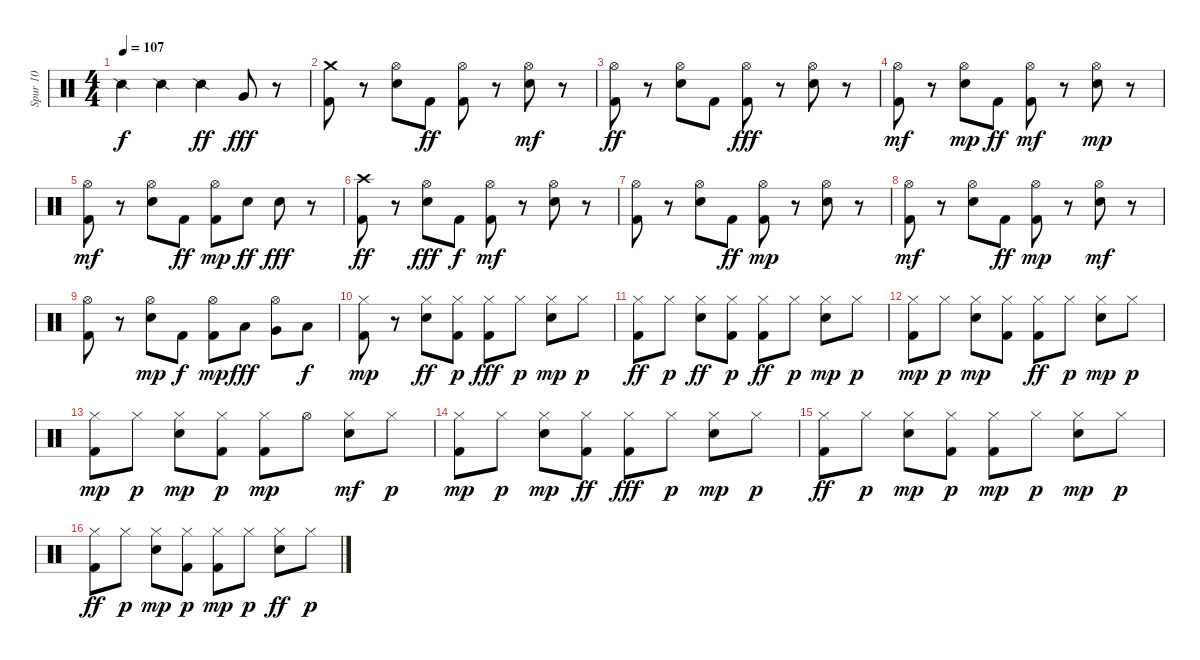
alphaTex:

\track ("Spur 10" "Spur 10") {instrument percussion}
\staff {score}
\articulation defaults
\ts (4 4)
\tempo 107
\clef neutral
\ks c "Snare (side stick) 2".4{dy f} "Snare (side stick) 2".4 "Snare (side stick) 2".4{dy ff} "Very Low Tom (hit)".8{dy fff}
r.8 |
("Crash medium (hit)" "Kick (hit) 2").8 r.8 ("Hi-Hat (open)" "Electric Snare (hit)").8 "Kick (hit) 2".8{dy ff} ("Kick (hit) 2" "Hi-Hat (open)").8 r.8 ("Electric Snare (hit)" "Hi-Hat (open)").8{dy mf} r.8 |
("Hi-Hat (open)" "Kick (hit) 2").8{dy ff} r.8 ("Hi-Hat (open)" "Electric Snare (hit)").8 "Kick (hit) 2".8 ("Hi-Hat (open)" "Kick (hit) 2").8{dy fff} r.8 ("Electric Snare (hit)" "Hi-Hat (open)").8 r.8 |
("Kick (hit) 2" "Hi-Hat (open)").8{dy mf} r.8 ("Electric Snare (hit)" "Hi-Hat (open)").8{dy mp} "Kick (hit) 2".8{dy ff} ("Kick (hit) 2" "Hi-Hat (open)").8{dy mf} r.8 ("Electric Snare (hit)" "Hi-Hat (open)").8{dy mp} r.8 |
("Kick (hit) 2" "Hi-Hat (open)").8{dy mf} r.8 ("Electric Snare (hit)" "Hi-Hat (open)").8 "Kick (hit) 2".8{dy ff} ("Kick (hit) 2" "Hi-Hat (open)").8{dy mp} "Electric Snare (hit)".8{dy ff} "Electric Snare (hit)".8{dy fff} r.8 |
("Crash high (hit)" "Kick (hit) 2").8{dy ff} r.8 ("Hi-Hat (open)" "Electric Snare (hit)").8{dy fff} "Kick (hit) 2".8{dy f} ("Kick (hit) 2" "Hi-Hat (open)").8{dy mf} r.8 ("Electric Snare (hit)" "Hi-Hat (open)").8 r.8 |
("Kick (hit) 2" "Hi-Hat (open)").8 r.8 ("Electric Snare (hit)" "Hi-Hat (open)").8 "Kick (hit) 2".8{dy ff} ("Kick (hit) 2" "Hi-Hat (open)").8{dy mp} r.8 ("Electric Snare (hit)" "Hi-Hat (open)").8 r.8 |
("Kick (hit) 2" "Hi-Hat (open)").8{dy mf} r.8 ("Electric Snare (hit)" "Hi-Hat (open)").8 "Kick (hit) 2".8{dy ff} ("Kick (hit) 2" "Hi-Hat (open)").8{dy mp} r.8 ("Electric Snare (hit)" "Hi-Hat (open)").8{dy mf} r.8 |
("Kick (hit) 2" "Hi-Hat (open)").8 r.8 ("Electric Snare (hit)" "Hi-Hat (open)").8{dy mp} "Kick (hit) 2".8{dy f} ("Kick (hit) 2" "Hi-Hat (open)").8{dy mp} "Low Tom (hit)".8{dy fff} ("Hi-Hat (open)" "Very Low Tom (hit)").8 "Low Floor Tom (hit)".8{dy f} |
("Kick (hit) 2" "Hi-Hat (closed)").8{dy mp} r.8 ("Hi-Hat (closed)" "Electric Snare (hit)").8{dy ff} ("Hi-Hat (closed)" "Kick (hit) 2").8{dy p} ("Hi-Hat (closed)" "Kick (hit) 2").8{dy fff} "Hi-Hat (closed)".8{dy p} ("Electric Snare (hit)" "Hi-Hat (closed)").8{dy mp} "Hi-Hat (closed)".8{dy p} |
("Hi-Hat (closed)" "Kick (hit) 2").8{dy ff} "Hi-Hat (closed)".8{dy p} ("Hi-Hat (closed)" "Electric Snare (hit)").8{dy ff} ("Hi-Hat (closed)" "Kick (hit) 2").8{dy p} ("Hi-Hat (closed)" "Kick (hit) 2").8{dy ff} "Hi-Hat (closed)".8{dy p} ("Electric Snare (hit)" "Hi-Hat (closed)").8{dy mp} "Hi-Hat (closed)".8{dy p} |
("Kick (hit) 2" "Hi-Hat (closed)").8{dy mp} "Hi-Hat (closed)".8{dy p} ("Electric Snare (hit)" "Hi-Hat (closed)").8{dy mp} ("Kick (hit) 2" "Hi-Hat (closed)").8 ("Hi-Hat (closed)" "Kick (hit) 2").8{dy ff} "Hi-Hat (closed)".8{dy p} ("Electric Snare (hit)" "Hi-Hat (closed)").8{dy mp} "Hi-Hat (closed)".8{dy p} |
("Kick (hit) 2" "Hi-Hat (closed)").8{dy mp} "Hi-Hat (closed)".8{dy p} ("Electric Snare (hit)" "Hi-Hat (closed)").8{dy mp} ("Kick (hit) 2" "Hi-Hat (closed)").8{dy p} ("Kick (hit) 2" "Hi-Hat (closed)").8{dy mp} "Hi-Hat (open)".8 ("Electric Snare (hit)" "Hi-Hat (closed)").8{dy mf} "Hi-Hat (closed)".8{dy p} |
("Kick (hit) 2" "Hi-Hat (closed)").8{dy mp} "Hi-Hat (closed)".8{dy p} ("Electric Snare (hit)" "Hi-Hat (closed)").8{dy mp} ("Hi-Hat (closed)" "Kick (hit) 2").8{dy ff} ("Hi-Hat (closed)" "Kick (hit) 2").8{dy fff} "Hi-Hat (closed)".8{dy p} ("Electric Snare (hit)" "Hi-Hat (closed)").8{dy mp} "Hi-Hat (closed)".8{dy p} |
("Hi-Hat (closed)" "Kick (hit) 2").8{dy ff} "Hi-Hat (closed)".8{dy p} ("Electric Snare (hit)" "Hi-Hat (closed)").8{dy mp} ("Hi-Hat (closed)" "Kick (hit) 2").8{dy p} ("Hi-Hat (closed)" "Kick (hit) 2").8{dy mp} "Hi-Hat (closed)".8{dy p} ("Electric Snare (hit)" "Hi-Hat (closed)").8{dy mp} "Hi-Hat (closed)".8{dy p} |
("Hi-Hat (closed)" "Kick (hit) 2").8{dy ff} "Hi-Hat (closed)".8{dy p} ("Hi-Hat (closed)" "Electric Snare (hit)").8{dy mp} ("Hi-Hat (closed)" "Kick (hit) 2").8{dy p} ("Hi-Hat (closed)" "Kick (hit) 2").8{dy mp} "Hi-Hat (closed)".8{dy p} ("Hi-Hat (closed)" "Electric Snare (hit)").8{dy ff} "Hi-Hat (closed)".8{dy p}
